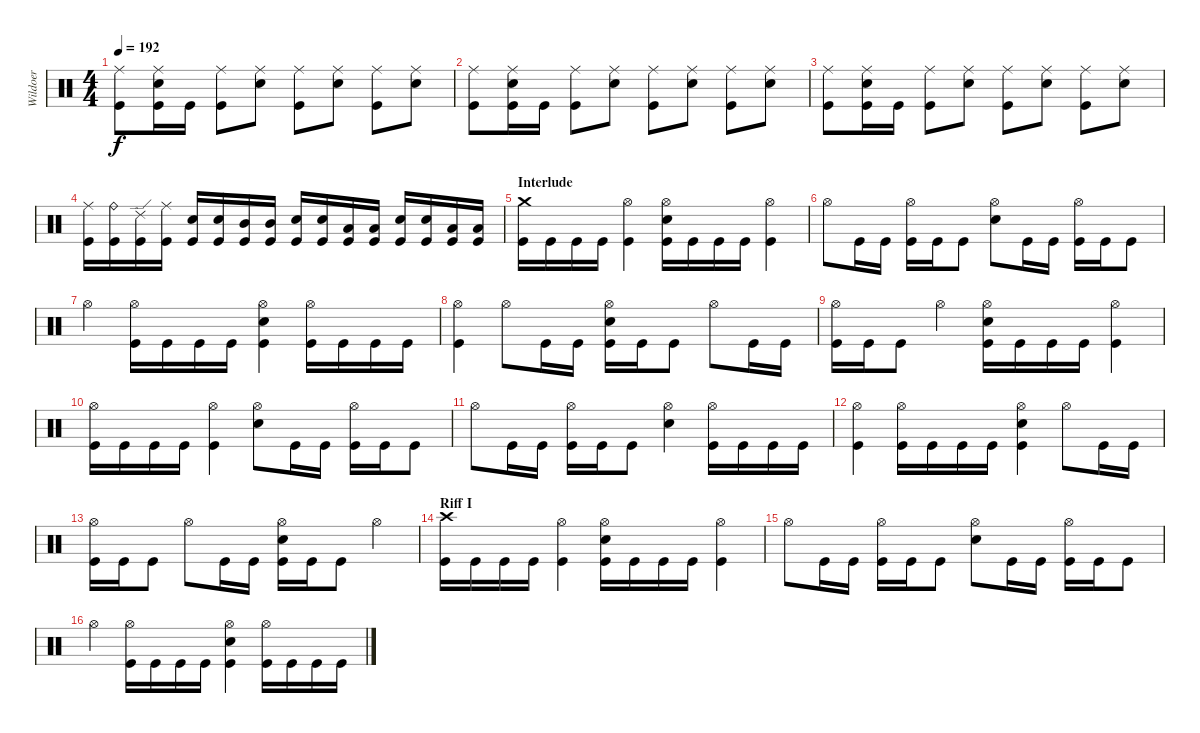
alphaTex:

\track ("Wildoer" "Wildoer") {instrument percussion}
\staff {score}
\articulation defaults
\ts (4 4)
\tempo 192
\clef neutral
\ks c
("Ride (middle)" "Kick (hit)").8{dy f} ("Ride (middle)" "Electric Snare (hit)" "Kick (hit)").16 "Kick (hit)".16 ("Ride (middle)" "Kick (hit)").8 ("Ride (middle)" "Electric Snare (hit)").8 ("Ride (middle)" "Kick (hit)").8 ("Ride (middle)" "Electric Snare (hit)").8 ("Ride (middle)" "Kick (hit)").8 ("Ride (middle)" "Electric Snare (hit)").8 |
("Ride (middle)" "Kick (hit)").8 ("Ride (middle)" "Electric Snare (hit)" "Kick (hit)").16 "Kick (hit)".16 ("Ride (middle)" "Kick (hit)").8 ("Ride (middle)" "Electric Snare (hit)").8 ("Ride (middle)" "Kick (hit)").8 ("Ride (middle)" "Electric Snare (hit)").8 ("Ride (middle)" "Kick (hit)").8 ("Ride (middle)" "Electric Snare (hit)").8 |
("Ride (middle)" "Kick (hit)").8 ("Ride (middle)" "Electric Snare (hit)" "Kick (hit)").16 "Kick (hit)".16 ("Ride (middle)" "Kick (hit)").8 ("Ride (middle)" "Electric Snare (hit)").8 ("Ride (middle)" "Kick (hit)").8 ("Ride (middle)" "Electric Snare (hit)").8 ("Ride (middle)" "Kick (hit)").8 ("Ride (middle)" "Electric Snare (hit)").8 |
("Ride (middle)" "Kick (hit)").16 ("Ride (bell)" "Kick (hit)").16 ("Ride (edge) 2" "Kick (hit)").16 ("Ride (middle)" "Kick (hit)").16 ("Electric Snare (hit)" "Kick (hit)").16 ("Electric Snare (hit)" "Kick (hit)").16 ("Mid Tom (hit)" "Kick (hit)").16 ("Mid Tom (hit)" "Kick (hit)").16 ("Electric Snare (hit)" "Kick (hit)").16 ("Electric Snare (hit)" "Kick (hit)").16 ("Low Tom (hit)" "Kick (hit)").16 ("Low Tom (hit)" "Kick (hit)").16 ("Electric Snare (hit)" "Kick (hit)").16 ("Electric Snare (hit)" "Kick (hit)").16 ("Low Floor Tom (hit)" "Kick (hit)").16 ("Low Floor Tom (hit)" "Kick (hit)").16 |
\section ("" "Interlude")
("Crash medium (hit)" "Kick (hit)").16 "Kick (hit)".16 "Kick (hit)".16 "Kick (hit)".16 ("Hi-Hat (open)" "Kick (hit)").4 ("Hi-Hat (open)" "Electric Snare (hit)" "Kick (hit)").16 "Kick (hit)".16 "Kick (hit)".16 "Kick (hit)".16 ("Hi-Hat (open)" "Kick (hit)").4 |
"Hi-Hat (open)".8 "Kick (hit)".16 "Kick (hit)".16 ("Hi-Hat (open)" "Kick (hit)").16 "Kick (hit)".16 "Kick (hit)".8 ("Hi-Hat (open)" "Electric Snare (hit)").8 "Kick (hit)".16 "Kick (hit)".16 ("Hi-Hat (open)" "Kick (hit)").16 "Kick (hit)".16 "Kick (hit)".8 |
"Hi-Hat (open)".4 ("Hi-Hat (open)" "Kick (hit)").16 "Kick (hit)".16 "Kick (hit)".16 "Kick (hit)".16 ("Hi-Hat (open)" "Electric Snare (hit)" "Kick (hit)").4 ("Hi-Hat (open)" "Kick (hit)").16 "Kick (hit)".16 "Kick (hit)".16 "Kick (hit)".16 |
("Hi-Hat (open)" "Kick (hit)").4 "Hi-Hat (open)".8 "Kick (hit)".16 "Kick (hit)".16 ("Hi-Hat (open)" "Electric Snare (hit)" "Kick (hit)").16 "Kick (hit)".16 "Kick (hit)".8 "Hi-Hat (open)".8 "Kick (hit)".16 "Kick (hit)".16 |
("Hi-Hat (open)" "Kick (hit)").16 "Kick (hit)".16 "Kick (hit)".8 "Hi-Hat (open)".4 ("Hi-Hat (open)" "Electric Snare (hit)" "Kick (hit)").16 "Kick (hit)".16 "Kick (hit)".16 "Kick (hit)".16 ("Hi-Hat (open)" "Kick (hit)").4 |
("Hi-Hat (open)" "Kick (hit)").16 "Kick (hit)".16 "Kick (hit)".16 "Kick (hit)".16 ("Hi-Hat (open)" "Kick (hit)").4 ("Hi-Hat (open)" "Electric Snare (hit)").8 "Kick (hit)".16 "Kick (hit)".16 ("Hi-Hat (open)" "Kick (hit)").16 "Kick (hit)".16 "Kick (hit)".8 |
"Hi-Hat (open)".8 "Kick (hit)".16 "Kick (hit)".16 ("Hi-Hat (open)" "Kick (hit)").16 "Kick (hit)".16 "Kick (hit)".8 ("Hi-Hat (open)" "Electric Snare (hit)").4 ("Hi-Hat (open)" "Kick (hit)").16 "Kick (hit)".16 "Kick (hit)".16 "Kick (hit)".16 |
("Hi-Hat (open)" "Kick (hit)").4 ("Hi-Hat (open)" "Kick (hit)").16 "Kick (hit)".16 "Kick (hit)".16 "Kick (hit)".16 ("Hi-Hat (open)" "Electric Snare (hit)" "Kick (hit)").4 "Hi-Hat (open)".8 "Kick (hit)".16 "Kick (hit)".16 |
("Hi-Hat (open)" "Kick (hit)").16 "Kick (hit)".16 "Kick (hit)".8 "Hi-Hat (open)".8 "Kick (hit)".16 "Kick (hit)".16 ("Hi-Hat (open)" "Electric Snare (hit)" "Kick (hit)").16 "Kick (hit)".16 "Kick (hit)".8 "Hi-Hat (open)".4 |
\section ("" "Riff I")
("Crash high (hit)" "Kick (hit)").16 "Kick (hit)".16 "Kick (hit)".16 "Kick (hit)".16 ("Hi-Hat (open)" "Kick (hit)").4 ("Hi-Hat (open)" "Electric Snare (hit)" "Kick (hit)").16 "Kick (hit)".16 "Kick (hit)".16 "Kick (hit)".16 ("Hi-Hat (open)" "Kick (hit)").4 |
"Hi-Hat (open)".8 "Kick (hit)".16 "Kick (hit)".16 ("Hi-Hat (open)" "Kick (hit)").16 "Kick (hit)".16 "Kick (hit)".8 ("Hi-Hat (open)" "Electric Snare (hit)").8 "Kick (hit)".16 "Kick (hit)".16 ("Hi-Hat (open)" "Kick (hit)").16 "Kick (hit)".16 "Kick (hit)".8 |
"Hi-Hat (open)".4 ("Hi-Hat (open)" "Kick (hit)").16 "Kick (hit)".16 "Kick (hit)".16 "Kick (hit)".16 ("Hi-Hat (open)" "Electric Snare (hit)" "Kick (hit)").4 ("Hi-Hat (open)" "Kick (hit)").16 "Kick (hit)".16 "Kick (hit)".16 "Kick (hit)".16
